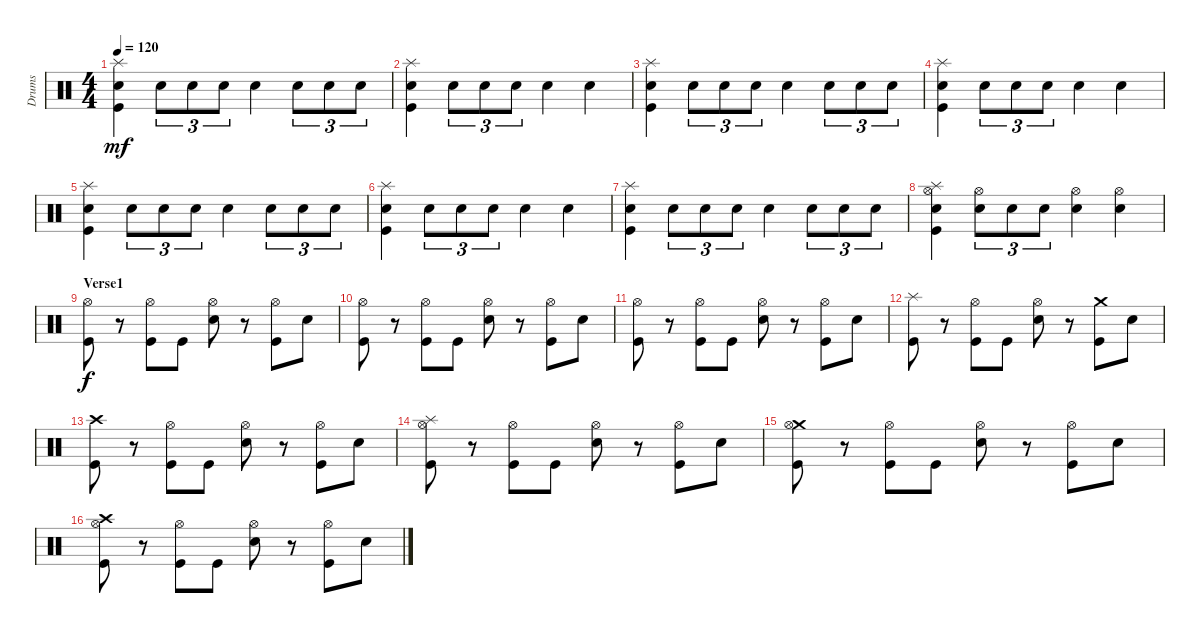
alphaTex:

\track ("Drums" "Drums") {instrument percussion}
\staff {score}
\articulation defaults
\ts (4 4)
\tempo 120
\clef neutral
\ks c
("Splash (hit)" "Snare (hit) 2" "Kick (hit)").4{dy mf} "Snare (hit) 2".8{tu (3 2)} "Snare (hit) 2".8{tu (3 2)} "Snare (hit) 2".8{tu (3 2)} "Snare (hit) 2".4 "Snare (hit) 2".8{tu (3 2)} "Snare (hit) 2".8{tu (3 2)} "Snare (hit) 2".8{tu (3 2)} |
("Splash (hit)" "Snare (hit) 2" "Kick (hit)").4 "Snare (hit) 2".8{tu (3 2)} "Snare (hit) 2".8{tu (3 2)} "Snare (hit) 2".8{tu (3 2)} "Snare (hit) 2".4 "Snare (hit) 2".4 |
("Splash (hit)" "Snare (hit) 2" "Kick (hit)").4 "Snare (hit) 2".8{tu (3 2)} "Snare (hit) 2".8{tu (3 2)} "Snare (hit) 2".8{tu (3 2)} "Snare (hit) 2".4 "Snare (hit) 2".8{tu (3 2)} "Snare (hit) 2".8{tu (3 2)} "Snare (hit) 2".8{tu (3 2)} |
("Splash (hit)" "Snare (hit) 2" "Kick (hit)").4 "Snare (hit) 2".8{tu (3 2)} "Snare (hit) 2".8{tu (3 2)} "Snare (hit) 2".8{tu (3 2)} "Snare (hit) 2".4 "Snare (hit) 2".4 |
("Splash (hit)" "Snare (hit) 2" "Kick (hit)").4 "Snare (hit) 2".8{tu (3 2)} "Snare (hit) 2".8{tu (3 2)} "Snare (hit) 2".8{tu (3 2)} "Snare (hit) 2".4 "Snare (hit) 2".8{tu (3 2)} "Snare (hit) 2".8{tu (3 2)} "Snare (hit) 2".8{tu (3 2)} |
("Splash (hit)" "Snare (hit) 2" "Kick (hit)").4 "Snare (hit) 2".8{tu (3 2)} "Snare (hit) 2".8{tu (3 2)} "Snare (hit) 2".8{tu (3 2)} "Snare (hit) 2".4 "Snare (hit) 2".4 |
("Splash (hit)" "Snare (hit) 2" "Kick (hit)").4 "Snare (hit) 2".8{tu (3 2)} "Snare (hit) 2".8{tu (3 2)} "Snare (hit) 2".8{tu (3 2)} "Snare (hit) 2".4 "Snare (hit) 2".8{tu (3 2)} "Snare (hit) 2".8{tu (3 2)} "Snare (hit) 2".8{tu (3 2)} |
("Splash (hit)" "Hi-Hat (open)" "Snare (hit) 2" "Kick (hit)").4 ("Hi-Hat (open)" "Snare (hit) 2").8{tu (3 2)} "Snare (hit) 2".8{tu (3 2)} "Snare (hit) 2".8{tu (3 2)} ("Hi-Hat (open)" "Snare (hit) 2").4 ("Hi-Hat (open)" "Snare (hit) 2").4 |
\section ("" "Verse1")
("Hi-Hat (open)" "Kick (hit)").8{dy f} r.8 ("Hi-Hat (open)" "Kick (hit)").8 "Kick (hit)".8 ("Hi-Hat (open)" "Snare (hit) 2").8 r.8 ("Hi-Hat (open)" "Kick (hit)").8 "Snare (hit) 2".8 |
("Hi-Hat (open)" "Kick (hit)").8 r.8 ("Hi-Hat (open)" "Kick (hit)").8 "Kick (hit)".8 ("Hi-Hat (open)" "Snare (hit) 2").8 r.8 ("Hi-Hat (open)" "Kick (hit)").8 "Snare (hit) 2".8 |
("Hi-Hat (open)" "Kick (hit)").8 r.8 ("Hi-Hat (open)" "Kick (hit)").8 "Kick (hit)".8 ("Hi-Hat (open)" "Snare (hit) 2").8 r.8 ("Hi-Hat (open)" "Kick (hit)").8 "Snare (hit) 2".8 |
("Splash (hit)" "Kick (hit)").8 r.8 ("Hi-Hat (open)" "Kick (hit)").8 "Kick (hit)".8 ("Hi-Hat (open)" "Snare (hit) 2").8 r.8 ("Crash medium (hit)" "Kick (hit)").8 "Snare (hit) 2".8 |
("Crash high (hit)" "Kick (hit)").8 r.8 ("Hi-Hat (open)" "Kick (hit)").8 "Kick (hit)".8 ("Hi-Hat (open)" "Snare (hit) 2").8 r.8 ("Hi-Hat (open)" "Kick (hit)").8 "Snare (hit) 2".8 |
("Splash (hit)" "Hi-Hat (open)" "Kick (hit)").8 r.8 ("Hi-Hat (open)" "Kick (hit)").8 "Kick (hit)".8 ("Hi-Hat (open)" "Snare (hit) 2").8 r.8 ("Hi-Hat (open)" "Kick (hit)").8 "Snare (hit) 2".8 |
("Crash medium (hit)" "Hi-Hat (open)" "Kick (hit)").8 r.8 ("Hi-Hat (open)" "Kick (hit)").8 "Kick (hit)".8 ("Hi-Hat (open)" "Snare (hit) 2").8 r.8 ("Hi-Hat (open)" "Kick (hit)").8 "Snare (hit) 2".8 |
("Crash high (hit)" "Hi-Hat (open)" "Kick (hit)").8 r.8 ("Hi-Hat (open)" "Kick (hit)").8 "Kick (hit)".8 ("Hi-Hat (open)" "Snare (hit) 2").8 r.8 ("Hi-Hat (open)" "Kick (hit)").8 "Snare (hit) 2".8
